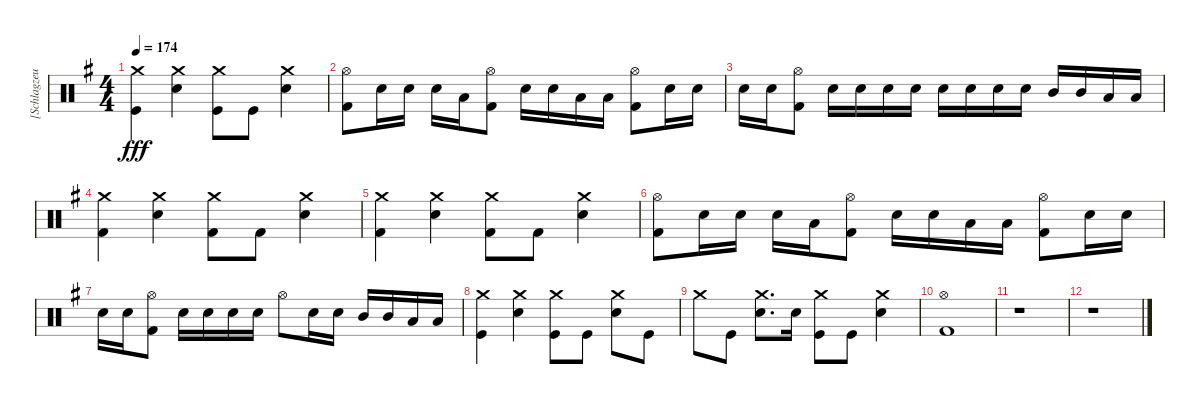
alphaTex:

\track ("[Schlagzeug]" "[Schlagzeu") {instrument percussion}
\staff {score}
\articulation defaults
\ts (4 4)
\tempo 174
\clef neutral
\ks g
("Crash medium (hit)" "Kick (hit)").4{dy fff} ("Crash medium (hit)" "Electric Snare (hit)").4 ("Crash medium (hit)" "Kick (hit)").8 "Kick (hit)".8 ("Crash medium (hit)" "Electric Snare (hit)").4 |
("Hi-Hat (open)" "Kick (hit) 2").8 "Electric Snare (hit)".16 "Electric Snare (hit)".16 "Electric Snare (hit)".16 "Low Tom (hit)".16 ("Hi-Hat (open)" "Kick (hit) 2").8 "Electric Snare (hit)".16 "Electric Snare (hit)".16 "Low Tom (hit)".16 "Low Tom (hit)".16 ("Hi-Hat (open)" "Kick (hit) 2").8 "Electric Snare (hit)".16 "Electric Snare (hit)".16 |
"Electric Snare (hit)".16 "Electric Snare (hit)".16 ("Hi-Hat (open)" "Kick (hit) 2").8 "Electric Snare (hit)".16 "Electric Snare (hit)".16 "Electric Snare (hit)".16 "Electric Snare (hit)".16 "Electric Snare (hit)".16 "Electric Snare (hit)".16 "Electric Snare (hit)".16 "Electric Snare (hit)".16 "Mid Tom (hit)".16 "Mid Tom (hit)".16 "Low Tom (hit)".16 "Low Tom (hit)".16 |
("Crash medium (hit)" "Kick (hit) 2").4 ("Crash medium (hit)" "Electric Snare (hit)").4 ("Crash medium (hit)" "Kick (hit) 2").8 "Kick (hit) 2".8 ("Crash medium (hit)" "Electric Snare (hit)").4 |
("Crash medium (hit)" "Kick (hit) 2").4 ("Crash medium (hit)" "Electric Snare (hit)").4 ("Crash medium (hit)" "Kick (hit) 2").8 "Kick (hit) 2".8 ("Crash medium (hit)" "Electric Snare (hit)").4 |
("Hi-Hat (open)" "Kick (hit) 2").8 "Electric Snare (hit)".16 "Electric Snare (hit)".16 "Electric Snare (hit)".16 "Low Tom (hit)".16 ("Hi-Hat (open)" "Kick (hit) 2").8 "Electric Snare (hit)".16 "Electric Snare (hit)".16 "Low Tom (hit)".16 "Low Tom (hit)".16 ("Hi-Hat (open)" "Kick (hit) 2").8 "Electric Snare (hit)".16 "Electric Snare (hit)".16 |
"Electric Snare (hit)".16 "Electric Snare (hit)".16 ("Hi-Hat (open)" "Kick (hit) 2").8 "Electric Snare (hit)".16 "Electric Snare (hit)".16 "Electric Snare (hit)".16 "Electric Snare (hit)".16 "Hi-Hat (open)".8 "Electric Snare (hit)".16 "Electric Snare (hit)".16 "Mid Tom (hit)".16 "Mid Tom (hit)".16 "Low Tom (hit)".16 "Low Tom (hit)".16 |
("Crash medium (hit)" "Kick (hit)").4 ("Crash medium (hit)" "Electric Snare (hit)").4 ("Crash medium (hit)" "Kick (hit)").8 "Kick (hit)".8 ("Crash medium (hit)" "Electric Snare (hit)").8 "Kick (hit)".8 |
"Crash medium (hit)".8 "Kick (hit)".8 ("Crash medium (hit)" "Electric Snare (hit)").8{d} "Electric Snare (hit)".16 ("Crash medium (hit)" "Kick (hit)").8 "Kick (hit)".8 ("Crash medium (hit)" "Electric Snare (hit)").4 |
("Hi-Hat (open)" "Kick (hit) 2").1 |
r.1 |
r.1
